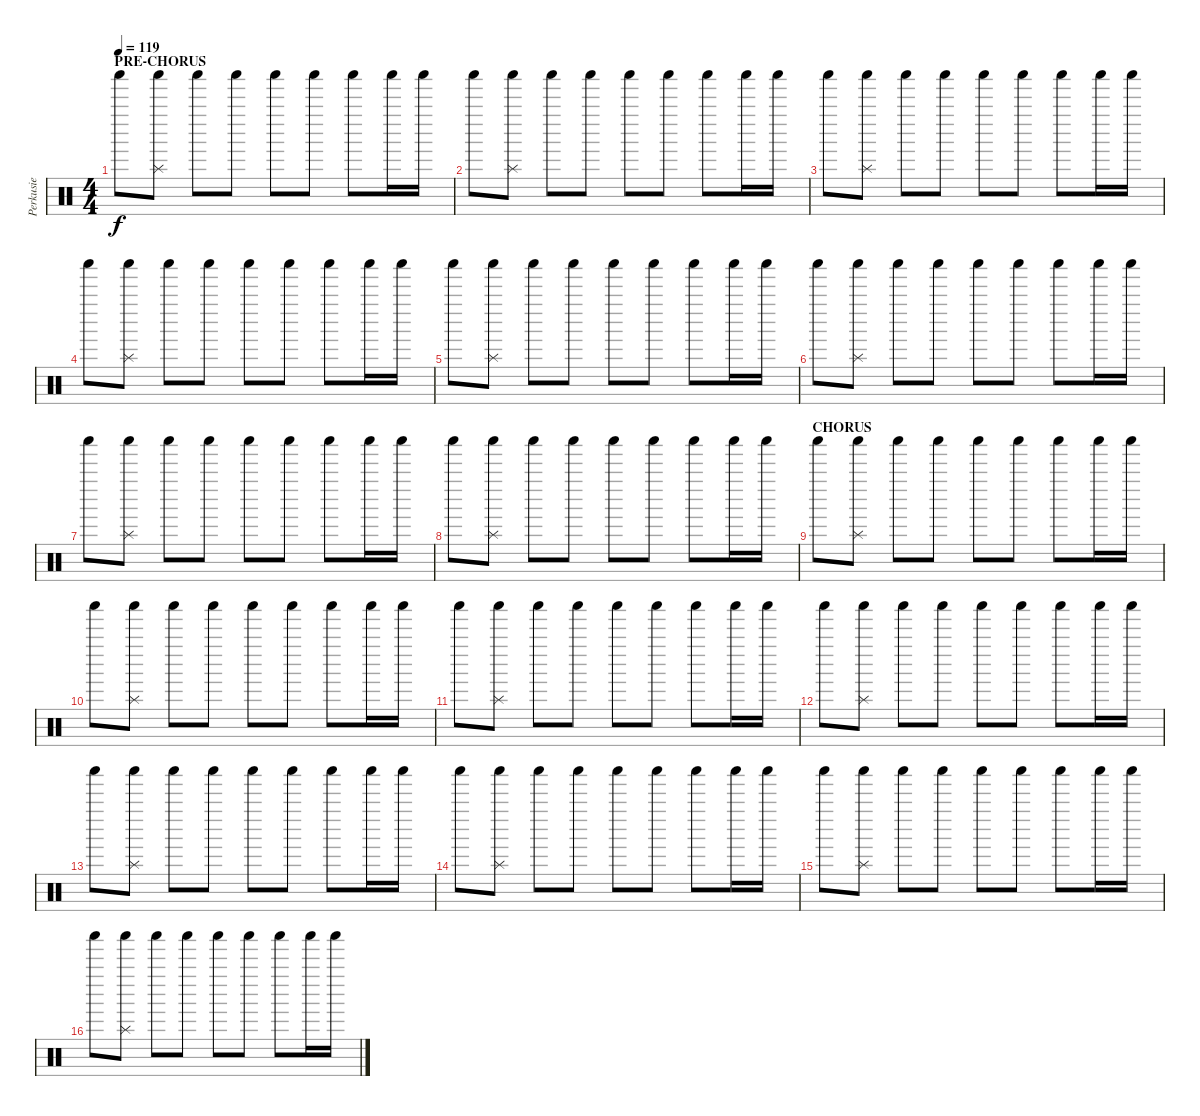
\track ("Perkusie" "Perkusie") {instrument percussion}
\staff {score}
\articulation defaults
\ts (4 4)
\section ("" "PRE-CHORUS")
\tempo 119
\clef neutral
\ks c "Shaker (hit)".8{dy f}
("Shaker (hit)" "Splash (hit)").8 "Shaker (hit)".8 "Shaker (hit)".8 "Shaker (hit)".8 "Shaker (hit)".8 "Shaker (hit)".8 "Shaker (hit)".16 "Shaker (hit)".16 |
"Shaker (hit)".8 ("Shaker (hit)" "Splash (hit)").8 "Shaker (hit)".8 "Shaker (hit)".8 "Shaker (hit)".8 "Shaker (hit)".8 "Shaker (hit)".8 "Shaker (hit)".16 "Shaker (hit)".16 |
"Shaker (hit)".8 ("Shaker (hit)" "Splash (hit)").8 "Shaker (hit)".8 "Shaker (hit)".8 "Shaker (hit)".8 "Shaker (hit)".8 "Shaker (hit)".8 "Shaker (hit)".16 "Shaker (hit)".16 |
"Shaker (hit)".8 ("Shaker (hit)" "Splash (hit)").8 "Shaker (hit)".8 "Shaker (hit)".8 "Shaker (hit)".8 "Shaker (hit)".8 "Shaker (hit)".8 "Shaker (hit)".16 "Shaker (hit)".16 |
"Shaker (hit)".8 ("Shaker (hit)" "Splash (hit)").8 "Shaker (hit)".8 "Shaker (hit)".8 "Shaker (hit)".8 "Shaker (hit)".8 "Shaker (hit)".8 "Shaker (hit)".16 "Shaker (hit)".16 |
"Shaker (hit)".8 ("Shaker (hit)" "Splash (hit)").8 "Shaker (hit)".8 "Shaker (hit)".8 "Shaker (hit)".8 "Shaker (hit)".8 "Shaker (hit)".8 "Shaker (hit)".16 "Shaker (hit)".16 |
"Shaker (hit)".8 ("Shaker (hit)" "Splash (hit)").8 "Shaker (hit)".8 "Shaker (hit)".8 "Shaker (hit)".8 "Shaker (hit)".8 "Shaker (hit)".8 "Shaker (hit)".16 "Shaker (hit)".16 |
"Shaker (hit)".8 ("Shaker (hit)" "Splash (hit)").8 "Shaker (hit)".8 "Shaker (hit)".8 "Shaker (hit)".8 "Shaker (hit)".8 "Shaker (hit)".8 "Shaker (hit)".16 "Shaker (hit)".16 |
\section ("" "CHORUS")
"Shaker (hit)".8 ("Shaker (hit)" "Splash (hit)").8 "Shaker (hit)".8 "Shaker (hit)".8 "Shaker (hit)".8 "Shaker (hit)".8 "Shaker (hit)".8 "Shaker (hit)".16 "Shaker (hit)".16 |
"Shaker (hit)".8 ("Shaker (hit)" "Splash (hit)").8 "Shaker (hit)".8 "Shaker (hit)".8 "Shaker (hit)".8 "Shaker (hit)".8 "Shaker (hit)".8 "Shaker (hit)".16 "Shaker (hit)".16 |
"Shaker (hit)".8 ("Shaker (hit)" "Splash (hit)").8 "Shaker (hit)".8 "Shaker (hit)".8 "Shaker (hit)".8 "Shaker (hit)".8 "Shaker (hit)".8 "Shaker (hit)".16 "Shaker (hit)".16 |
"Shaker (hit)".8 ("Shaker (hit)" "Splash (hit)").8 "Shaker (hit)".8 "Shaker (hit)".8 "Shaker (hit)".8 "Shaker (hit)".8 "Shaker (hit)".8 "Shaker (hit)".16 "Shaker (hit)".16 |
"Shaker (hit)".8 ("Shaker (hit)" "Splash (hit)").8 "Shaker (hit)".8 "Shaker (hit)".8 "Shaker (hit)".8 "Shaker (hit)".8 "Shaker (hit)".8 "Shaker (hit)".16 "Shaker (hit)".16 |
"Shaker (hit)".8 ("Shaker (hit)" "Splash (hit)").8 "Shaker (hit)".8 "Shaker (hit)".8 "Shaker (hit)".8 "Shaker (hit)".8 "Shaker (hit)".8 "Shaker (hit)".16 "Shaker (hit)".16 |
"Shaker (hit)".8 ("Shaker (hit)" "Splash (hit)").8 "Shaker (hit)".8 "Shaker (hit)".8 "Shaker (hit)".8 "Shaker (hit)".8 "Shaker (hit)".8 "Shaker (hit)".16 "Shaker (hit)".16 |
"Shaker (hit)".8 ("Shaker (hit)" "Splash (hit)").8 "Shaker (hit)".8 "Shaker (hit)".8 "Shaker (hit)".8 "Shaker (hit)".8 "Shaker (hit)".8 "Shaker (hit)".16 "Shaker (hit)".16
